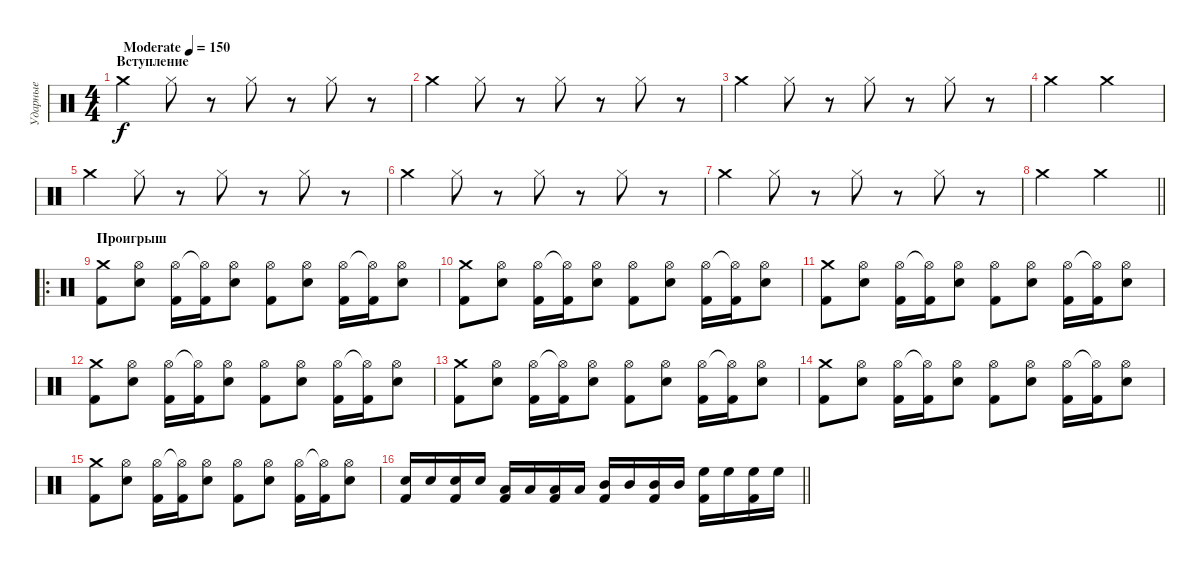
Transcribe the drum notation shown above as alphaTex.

\track ("Ударные" "Ударные") {instrument percussion}
\staff {score}
\articulation defaults
\ts (4 4)
\section ("" "Вступление")
\tempo (150 "Moderate")
\clef neutral
\ks c "Crash medium (hit)".4{dy f} "Hi-Hat (closed)".8
r.8 "Hi-Hat (closed)".8 r.8 "Hi-Hat (closed)".8 r.8 |
"Crash medium (hit)".4 "Hi-Hat (closed)".8 r.8 "Hi-Hat (closed)".8 r.8 "Hi-Hat (closed)".8 r.8 |
"Crash medium (hit)".4 "Hi-Hat (closed)".8 r.8 "Hi-Hat (closed)".8 r.8 "Hi-Hat (closed)".8 r.8 |
"Crash medium (hit)".2 "Crash medium (hit)".2 |
"Crash medium (hit)".4 "Hi-Hat (closed)".8 r.8 "Hi-Hat (closed)".8 r.8 "Hi-Hat (closed)".8 r.8 |
"Crash medium (hit)".4 "Hi-Hat (closed)".8 r.8 "Hi-Hat (closed)".8 r.8 "Hi-Hat (closed)".8 r.8 |
"Crash medium (hit)".4 "Hi-Hat (closed)".8 r.8 "Hi-Hat (closed)".8 r.8 "Hi-Hat (closed)".8 r.8 |
\barLineRight lightlight "Crash medium (hit)".2 "Crash medium (hit)".2
|
\ro
\section ("" "Проигрыш")
("Crash medium (hit)" "Kick (hit) 2").8 ("Hi-Hat (open)" "Snare (hit) 2").8 ("Hi-Hat (open)" "Kick (hit) 2").16 ("Hi-Hat (open)"{t} "Kick (hit) 2").16 ("Hi-Hat (open)" "Snare (hit) 2").8 ("Hi-Hat (open)" "Kick (hit) 2").8 ("Hi-Hat (open)" "Snare (hit) 2").8 ("Hi-Hat (open)" "Kick (hit) 2").16 ("Hi-Hat (open)"{t} "Kick (hit) 2").16 ("Hi-Hat (open)" "Snare (hit) 2").8 |
("Crash medium (hit)" "Kick (hit) 2").8 ("Hi-Hat (open)" "Snare (hit) 2").8 ("Hi-Hat (open)" "Kick (hit) 2").16 ("Hi-Hat (open)"{t} "Kick (hit) 2").16 ("Hi-Hat (open)" "Snare (hit) 2").8 ("Hi-Hat (open)" "Kick (hit) 2").8 ("Hi-Hat (open)" "Snare (hit) 2").8 ("Hi-Hat (open)" "Kick (hit) 2").16 ("Hi-Hat (open)"{t} "Kick (hit) 2").16 ("Hi-Hat (open)" "Snare (hit) 2").8 |
("Crash medium (hit)" "Kick (hit) 2").8 ("Hi-Hat (open)" "Snare (hit) 2").8 ("Hi-Hat (open)" "Kick (hit) 2").16 ("Hi-Hat (open)"{t} "Kick (hit) 2").16 ("Hi-Hat (open)" "Snare (hit) 2").8 ("Hi-Hat (open)" "Kick (hit) 2").8 ("Hi-Hat (open)" "Snare (hit) 2").8 ("Hi-Hat (open)" "Kick (hit) 2").16 ("Hi-Hat (open)"{t} "Kick (hit) 2").16 ("Hi-Hat (open)" "Snare (hit) 2").8 |
("Crash medium (hit)" "Kick (hit) 2").8 ("Hi-Hat (open)" "Snare (hit) 2").8 ("Hi-Hat (open)" "Kick (hit) 2").16 ("Hi-Hat (open)"{t} "Kick (hit) 2").16 ("Hi-Hat (open)" "Snare (hit) 2").8 ("Hi-Hat (open)" "Kick (hit) 2").8 ("Hi-Hat (open)" "Snare (hit) 2").8 ("Hi-Hat (open)" "Kick (hit) 2").16 ("Hi-Hat (open)"{t} "Kick (hit) 2").16 ("Hi-Hat (open)" "Snare (hit) 2").8 |
("Crash medium (hit)" "Kick (hit) 2").8 ("Hi-Hat (open)" "Snare (hit) 2").8 ("Hi-Hat (open)" "Kick (hit) 2").16 ("Hi-Hat (open)"{t} "Kick (hit) 2").16 ("Hi-Hat (open)" "Snare (hit) 2").8 ("Hi-Hat (open)" "Kick (hit) 2").8 ("Hi-Hat (open)" "Snare (hit) 2").8 ("Hi-Hat (open)" "Kick (hit) 2").16 ("Hi-Hat (open)"{t} "Kick (hit) 2").16 ("Hi-Hat (open)" "Snare (hit) 2").8 |
("Crash medium (hit)" "Kick (hit) 2").8 ("Hi-Hat (open)" "Snare (hit) 2").8 ("Hi-Hat (open)" "Kick (hit) 2").16 ("Hi-Hat (open)"{t} "Kick (hit) 2").16 ("Hi-Hat (open)" "Snare (hit) 2").8 ("Hi-Hat (open)" "Kick (hit) 2").8 ("Hi-Hat (open)" "Snare (hit) 2").8 ("Hi-Hat (open)" "Kick (hit) 2").16 ("Hi-Hat (open)"{t} "Kick (hit) 2").16 ("Hi-Hat (open)" "Snare (hit) 2").8 |
("Crash medium (hit)" "Kick (hit) 2").8 ("Hi-Hat (open)" "Snare (hit) 2").8 ("Hi-Hat (open)" "Kick (hit) 2").16 ("Hi-Hat (open)"{t} "Kick (hit) 2").16 ("Hi-Hat (open)" "Snare (hit) 2").8 ("Hi-Hat (open)" "Kick (hit) 2").8 ("Hi-Hat (open)" "Snare (hit) 2").8 ("Hi-Hat (open)" "Kick (hit) 2").16 ("Hi-Hat (open)"{t} "Kick (hit) 2").16 ("Hi-Hat (open)" "Snare (hit) 2").8 |
\barLineRight lightlight
("Snare (hit) 2" "Kick (hit) 2").16 "Snare (hit) 2".16 ("Snare (hit) 2" "Kick (hit) 2").16 "Snare (hit) 2".16 ("Low Tom (hit)" "Kick (hit) 2").16 "Low Tom (hit)".16 ("Low Tom (hit)" "Kick (hit) 2").16 "Low Tom (hit)".16 ("Mid Tom (hit)" "Kick (hit) 2").16 "Mid Tom (hit)".16 ("Mid Tom (hit)" "Kick (hit) 2").16 "Mid Tom (hit)".16 ("High Floor Tom (hit)" "Kick (hit) 2").16 "High Floor Tom (hit)".16 ("High Floor Tom (hit)" "Kick (hit) 2").16 "High Floor Tom (hit)".16
